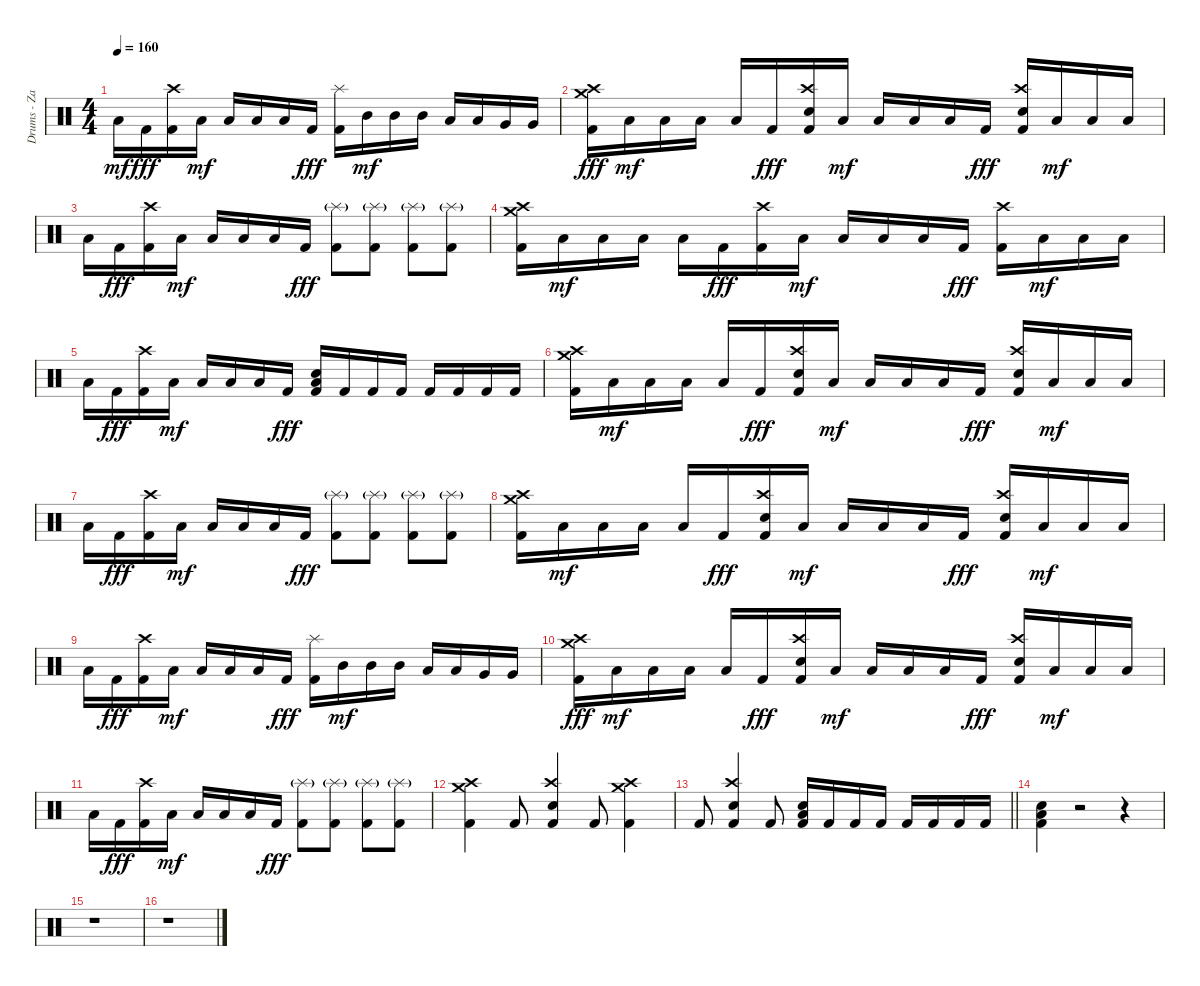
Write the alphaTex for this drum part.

\track ("Drums - Zac Farro" "Drums - Za") {instrument percussion}
\staff {score}
\articulation defaults
\ts (4 4)
\tempo 160
\clef neutral
\ks c "Low Tom (hit)".16{dy mf} "Kick (hit) 2".16{dy fff}
("Crash high (hit)" "Kick (hit) 2").16 "Low Tom (hit)".16{dy mf} "Low Tom (hit)".16 "Low Tom (hit)".16 "Low Tom (hit)".16 "Kick (hit) 2".16{dy fff} ("Splash (hit)" "Kick (hit) 2").16 "Mid Tom (hit)".16{dy mf} "Mid Tom (hit)".16 "Mid Tom (hit)".16 "Low Tom (hit)".16 "Low Tom (hit)".16 "Very Low Tom (hit)".16 "Very Low Tom (hit)".16 |
("Crash high (hit)" "Crash medium (hit)" "Kick (hit) 2").16{dy fff} "Low Tom (hit)".16{dy mf} "Low Tom (hit)".16 "Low Tom (hit)".16 "Low Tom (hit)".16 "Kick (hit) 2".16{dy fff} ("Crash high (hit)" "Electric Snare (hit)" "Kick (hit) 2").16 "Low Tom (hit)".16{dy mf} "Low Tom (hit)".16 "Low Tom (hit)".16 "Low Tom (hit)".16 "Kick (hit) 2".16{dy fff} ("Crash high (hit)" "Electric Snare (hit)" "Kick (hit) 2").16 "Low Tom (hit)".16{dy mf} "Low Tom (hit)".16 "Low Tom (hit)".16 |
"Low Tom (hit)".16 "Kick (hit) 2".16{dy fff} ("Crash high (hit)" "Kick (hit) 2").16 "Low Tom (hit)".16{dy mf} "Low Tom (hit)".16 "Low Tom (hit)".16 "Low Tom (hit)".16 "Kick (hit) 2".16{dy fff} ("Splash (hit)"{g} "Kick (hit) 2").8 ("Splash (hit)"{g} "Kick (hit) 2").8 ("Splash (hit)"{g} "Kick (hit) 2").8 ("Splash (hit)"{g} "Kick (hit) 2").8 |
("Crash high (hit)" "Crash medium (hit)" "Kick (hit) 2").16 "Low Tom (hit)".16{dy mf} "Low Tom (hit)".16 "Low Tom (hit)".16 "Low Tom (hit)".16 "Kick (hit) 2".16{dy fff} ("Crash high (hit)" "Kick (hit) 2").16 "Low Tom (hit)".16{dy mf} "Low Tom (hit)".16 "Low Tom (hit)".16 "Low Tom (hit)".16 "Kick (hit) 2".16{dy fff} ("Crash high (hit)" "Kick (hit) 2").16 "Low Tom (hit)".16{dy mf} "Low Tom (hit)".16 "Low Tom (hit)".16 |
"Low Tom (hit)".16 "Kick (hit) 2".16{dy fff} ("Crash high (hit)" "Kick (hit) 2").16 "Low Tom (hit)".16{dy mf} "Low Tom (hit)".16 "Low Tom (hit)".16 "Low Tom (hit)".16 "Kick (hit) 2".16{dy fff} ("Electric Snare (hit)" "Low Tom (hit)" "Kick (hit) 2").16 "Kick (hit) 2".16 "Kick (hit) 2".16 "Kick (hit) 2".16 "Kick (hit) 2".16 "Kick (hit) 2".16 "Kick (hit) 2".16 "Kick (hit) 2".16 |
("Crash high (hit)" "Crash medium (hit)" "Kick (hit) 2").16 "Low Tom (hit)".16{dy mf} "Low Tom (hit)".16 "Low Tom (hit)".16 "Low Tom (hit)".16 "Kick (hit) 2".16{dy fff} ("Crash high (hit)" "Electric Snare (hit)" "Kick (hit) 2").16 "Low Tom (hit)".16{dy mf} "Low Tom (hit)".16 "Low Tom (hit)".16 "Low Tom (hit)".16 "Kick (hit) 2".16{dy fff} ("Crash high (hit)" "Electric Snare (hit)" "Kick (hit) 2").16 "Low Tom (hit)".16{dy mf} "Low Tom (hit)".16 "Low Tom (hit)".16 |
"Low Tom (hit)".16 "Kick (hit) 2".16{dy fff} ("Crash high (hit)" "Kick (hit) 2").16 "Low Tom (hit)".16{dy mf} "Low Tom (hit)".16 "Low Tom (hit)".16 "Low Tom (hit)".16 "Kick (hit) 2".16{dy fff} ("Splash (hit)"{g} "Kick (hit) 2").8 ("Splash (hit)"{g} "Kick (hit) 2").8 ("Splash (hit)"{g} "Kick (hit) 2").8 ("Splash (hit)"{g} "Kick (hit) 2").8 |
("Crash high (hit)" "Crash medium (hit)" "Kick (hit) 2").16 "Low Tom (hit)".16{dy mf} "Low Tom (hit)".16 "Low Tom (hit)".16 "Low Tom (hit)".16 "Kick (hit) 2".16{dy fff} ("Crash high (hit)" "Electric Snare (hit)" "Kick (hit) 2").16 "Low Tom (hit)".16{dy mf} "Low Tom (hit)".16 "Low Tom (hit)".16 "Low Tom (hit)".16 "Kick (hit) 2".16{dy fff} ("Crash high (hit)" "Electric Snare (hit)" "Kick (hit) 2").16 "Low Tom (hit)".16{dy mf} "Low Tom (hit)".16 "Low Tom (hit)".16 |
"Low Tom (hit)".16 "Kick (hit) 2".16{dy fff} ("Crash high (hit)" "Kick (hit) 2").16 "Low Tom (hit)".16{dy mf} "Low Tom (hit)".16 "Low Tom (hit)".16 "Low Tom (hit)".16 "Kick (hit) 2".16{dy fff} ("Splash (hit)" "Kick (hit) 2").16 "Mid Tom (hit)".16{dy mf} "Mid Tom (hit)".16 "Mid Tom (hit)".16 "Low Tom (hit)".16 "Low Tom (hit)".16 "Very Low Tom (hit)".16 "Very Low Tom (hit)".16 |
("Crash high (hit)" "Crash medium (hit)" "Kick (hit) 2").16{dy fff} "Low Tom (hit)".16{dy mf} "Low Tom (hit)".16 "Low Tom (hit)".16 "Low Tom (hit)".16 "Kick (hit) 2".16{dy fff} ("Crash high (hit)" "Electric Snare (hit)" "Kick (hit) 2").16 "Low Tom (hit)".16{dy mf} "Low Tom (hit)".16 "Low Tom (hit)".16 "Low Tom (hit)".16 "Kick (hit) 2".16{dy fff} ("Crash high (hit)" "Electric Snare (hit)" "Kick (hit) 2").16 "Low Tom (hit)".16{dy mf} "Low Tom (hit)".16 "Low Tom (hit)".16 |
"Low Tom (hit)".16 "Kick (hit) 2".16{dy fff} ("Crash high (hit)" "Kick (hit) 2").16 "Low Tom (hit)".16{dy mf} "Low Tom (hit)".16 "Low Tom (hit)".16 "Low Tom (hit)".16 "Kick (hit) 2".16{dy fff} ("Splash (hit)"{g} "Kick (hit) 2").8 ("Splash (hit)"{g} "Kick (hit) 2").8 ("Splash (hit)"{g} "Kick (hit) 2").8 ("Splash (hit)"{g} "Kick (hit) 2").8 |
("Crash high (hit)" "Crash medium (hit)" "Kick (hit) 2").4 "Kick (hit) 2".8 ("Crash high (hit)" "Electric Snare (hit)" "Kick (hit) 2").4 "Kick (hit) 2".8 ("Crash high (hit)" "Crash medium (hit)" "Kick (hit) 2").4 |
\barLineRight lightlight "Kick (hit) 2".8
("Crash high (hit)" "Electric Snare (hit)" "Kick (hit) 2").4 "Kick (hit) 2".8 ("Electric Snare (hit)" "Low Tom (hit)" "Kick (hit) 2").16 "Kick (hit) 2".16 "Kick (hit) 2".16 "Kick (hit) 2".16 "Kick (hit) 2".16 "Kick (hit) 2".16 "Kick (hit) 2".16 "Kick (hit) 2".16 |
("Electric Snare (hit)" "Low Tom (hit)" "Kick (hit) 2").4 r.2 r.4 |
r.1 |
r.1
